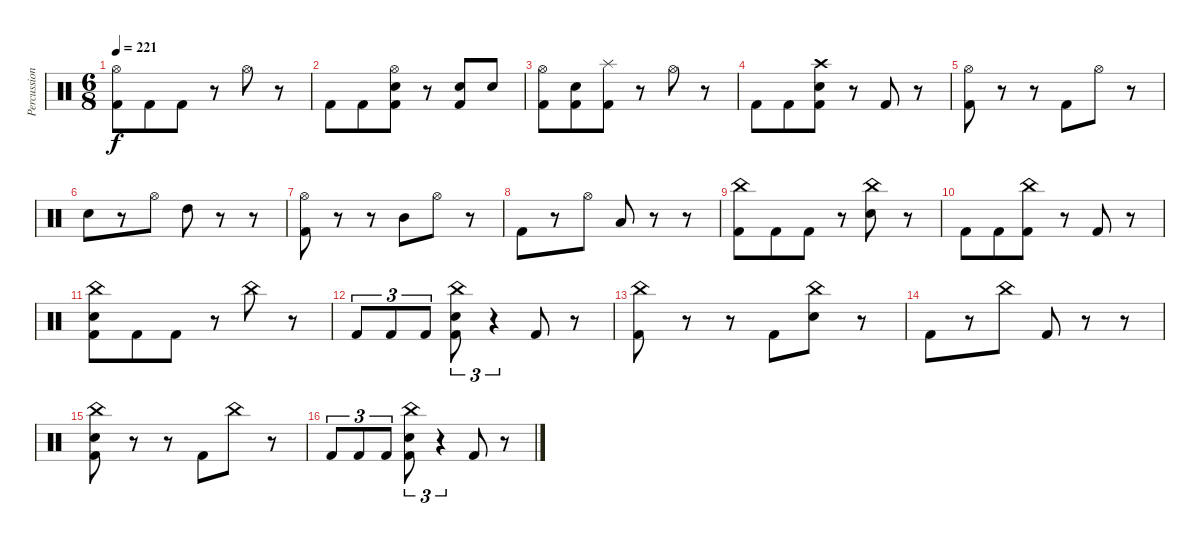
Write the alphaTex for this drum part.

\track ("Percussion" "Percussion") {instrument percussion}
\staff {score}
\articulation defaults
\ts (6 8)
\tempo 221
\clef neutral
\ks c
("Hi-Hat (open)" "Kick (hit) 2").8{dy f} "Kick (hit) 2".8 "Kick (hit) 2".8 r.8 "Hi-Hat (open)".8 r.8 |
"Kick (hit) 2".8 "Kick (hit) 2".8 ("Hi-Hat (open)" "Snare (hit) 2" "Kick (hit) 2").8 r.8 ("Snare (hit) 2" "Kick (hit) 2").8 "Snare (hit) 2".8 |
("Hi-Hat (open)" "Kick (hit) 2").8 ("Snare (hit) 2" "Kick (hit) 2").8 ("Splash (hit)" "Kick (hit) 2").8 r.8 "Hi-Hat (open)".8 r.8 |
"Kick (hit) 2".8 "Kick (hit) 2".8 ("Crash high (hit)" "Snare (hit) 2" "Kick (hit) 2").8 r.8 "Kick (hit) 2".8 r.8 |
("Hi-Hat (open)" "Kick (hit) 2").8 r.8 r.8 "Kick (hit) 2".8 "Hi-Hat (open)".8 r.8 |
"Snare (hit) 2".8 r.8 "Hi-Hat (open)".8 "High Tom (hit)".8 r.8 r.8 |
("Hi-Hat (open)" "Kick (hit) 2").8 r.8 r.8 "Mid Tom (hit)".8 "Hi-Hat (open)".8 r.8 |
"Kick (hit) 2".8 r.8 "Hi-Hat (open)".8 "Low Tom (hit)".8 r.8 r.8 |
("China (hit)" "Kick (hit) 2").8 "Kick (hit) 2".8 "Kick (hit) 2".8 r.8 ("China (hit)" "Snare (hit) 2").8 r.8 |
"Kick (hit) 2".8 "Kick (hit) 2".8 ("China (hit)" "Kick (hit) 2").8 r.8 "Kick (hit) 2".8 r.8 |
("China (hit)" "Snare (hit) 2" "Kick (hit) 2").8 "Kick (hit) 2".8 "Kick (hit) 2".8 r.8 "China (hit)".8 r.8 |
"Kick (hit) 2".8{tu (3 2)} "Kick (hit) 2".8{tu (3 2)} "Kick (hit) 2".8{tu (3 2)} ("China (hit)" "Snare (hit) 2" "Kick (hit) 2").8{tu (3 2)} r.4{tu (3 2)} "Kick (hit) 2".8 r.8 |
("China (hit)" "Kick (hit) 2").8 r.8 r.8 "Kick (hit) 2".8 ("China (hit)" "Snare (hit) 2").8 r.8 |
"Kick (hit) 2".8 r.8 "China (hit)".8 "Kick (hit) 2".8 r.8 r.8 |
("China (hit)" "Snare (hit) 2" "Kick (hit) 2").8 r.8 r.8 "Kick (hit) 2".8 "China (hit)".8 r.8 |
"Kick (hit) 2".8{tu (3 2)} "Kick (hit) 2".8{tu (3 2)} "Kick (hit) 2".8{tu (3 2)} ("China (hit)" "Snare (hit) 2" "Kick (hit) 2").8{tu (3 2)} r.4{tu (3 2)} "Kick (hit) 2".8 r.8
